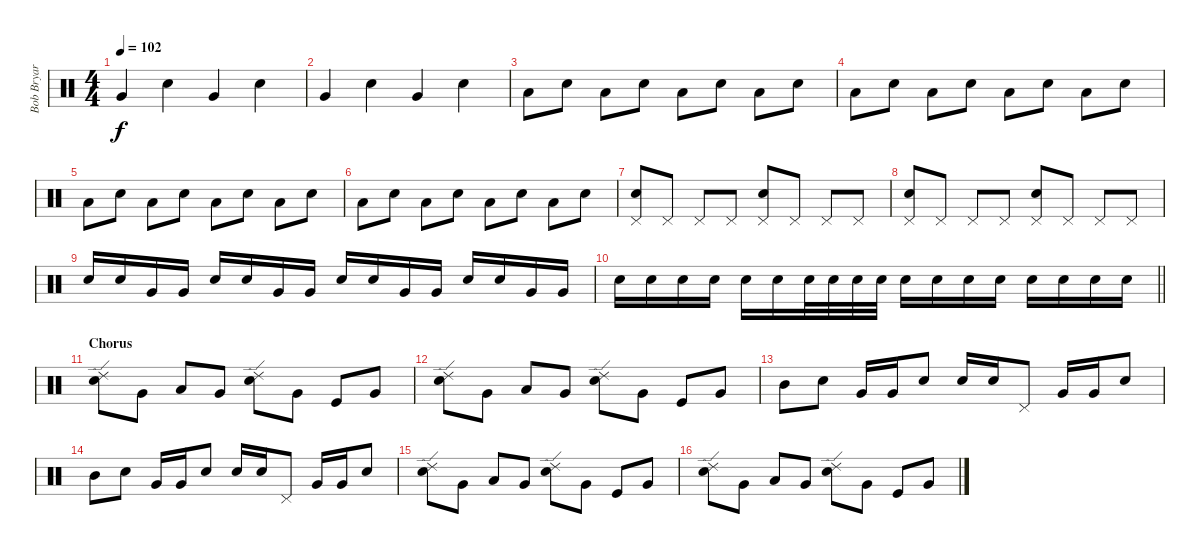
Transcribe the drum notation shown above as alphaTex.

\track ("Bob Bryar" "Bob Bryar") {instrument percussion}
\staff {score}
\articulation defaults
\ts (4 4)
\tempo 102
\clef neutral
\ks c "Very Low Tom (hit)".4{dy f} "Electric Snare (hit)".4 "Very Low Tom (hit)".4 "Electric Snare (hit)".4
|
"Very Low Tom (hit)".4 "Electric Snare (hit)".4 "Very Low Tom (hit)".4 "Electric Snare (hit)".4 |
"Low Floor Tom (hit)".8 "Electric Snare (hit)".8 "Low Floor Tom (hit)".8 "Electric Snare (hit)".8 "Low Floor Tom (hit)".8 "Electric Snare (hit)".8 "Low Floor Tom (hit)".8 "Electric Snare (hit)".8 |
"Low Floor Tom (hit)".8 "Electric Snare (hit)".8 "Low Floor Tom (hit)".8 "Electric Snare (hit)".8 "Low Floor Tom (hit)".8 "Electric Snare (hit)".8 "Low Floor Tom (hit)".8 "Electric Snare (hit)".8 |
"Low Floor Tom (hit)".8 "Electric Snare (hit)".8 "Low Floor Tom (hit)".8 "Electric Snare (hit)".8 "Low Floor Tom (hit)".8 "Electric Snare (hit)".8 "Low Floor Tom (hit)".8 "Electric Snare (hit)".8 |
"Low Floor Tom (hit)".8 "Electric Snare (hit)".8 "Low Floor Tom (hit)".8 "Electric Snare (hit)".8 "Low Floor Tom (hit)".8 "Electric Snare (hit)".8 "Low Floor Tom (hit)".8 "Electric Snare (hit)".8 |
("Pedal Hi-Hat (hit)" "Electric Snare (hit)").8 "Pedal Hi-Hat (hit)".8 "Pedal Hi-Hat (hit)".8 "Pedal Hi-Hat (hit)".8 ("Pedal Hi-Hat (hit)" "Electric Snare (hit)").8 "Pedal Hi-Hat (hit)".8 "Pedal Hi-Hat (hit)".8 "Pedal Hi-Hat (hit)".8 |
("Pedal Hi-Hat (hit)" "Electric Snare (hit)").8 "Pedal Hi-Hat (hit)".8 "Pedal Hi-Hat (hit)".8 "Pedal Hi-Hat (hit)".8 ("Pedal Hi-Hat (hit)" "Electric Snare (hit)").8 "Pedal Hi-Hat (hit)".8 "Pedal Hi-Hat (hit)".8 "Pedal Hi-Hat (hit)".8 |
"Electric Snare (hit)".16 "Electric Snare (hit)".16 "Very Low Tom (hit)".16 "Very Low Tom (hit)".16 "Electric Snare (hit)".16 "Electric Snare (hit)".16 "Very Low Tom (hit)".16 "Very Low Tom (hit)".16 "Electric Snare (hit)".16 "Electric Snare (hit)".16 "Very Low Tom (hit)".16 "Very Low Tom (hit)".16 "Electric Snare (hit)".16 "Electric Snare (hit)".16 "Very Low Tom (hit)".16 "Very Low Tom (hit)".16 |
\barLineRight lightlight "Electric Snare (hit)".16 "Electric Snare (hit)".16 "Electric Snare (hit)".16 "Electric Snare (hit)".16 "Electric Snare (hit)".16 "Electric Snare (hit)".16 "Electric Snare (hit)".32 "Electric Snare (hit)".32 "Electric Snare (hit)".32 "Electric Snare (hit)".32 "Electric Snare (hit)".16 "Electric Snare (hit)".16 "Electric Snare (hit)".16 "Electric Snare (hit)".16 "Electric Snare (hit)".16 "Electric Snare (hit)".16 "Electric Snare (hit)".16 "Electric Snare (hit)".16
|
\section ("" "Chorus")
("Ride (edge) 2" "Electric Snare (hit)").8 "Very Low Tom (hit)".8 "Low Tom (hit)".8 "Very Low Tom (hit)".8 ("Ride (edge) 2" "Electric Snare (hit)").8 "Very Low Tom (hit)".8 "Kick (hit)".8 "Very Low Tom (hit)".8 |
("Ride (edge) 2" "Electric Snare (hit)").8 "Very Low Tom (hit)".8 "Low Tom (hit)".8 "Very Low Tom (hit)".8 ("Ride (edge) 2" "Electric Snare (hit)").8 "Very Low Tom (hit)".8 "Kick (hit)".8 "Very Low Tom (hit)".8 |
"Mid Tom (hit)".8 "Electric Snare (hit)".8 "Very Low Tom (hit)".16 "Very Low Tom (hit)".16 "Electric Snare (hit)".8 "Electric Snare (hit)".16 "Electric Snare (hit)".16 "Pedal Hi-Hat (hit)".8 "Very Low Tom (hit)".16 "Very Low Tom (hit)".16 "Electric Snare (hit)".8 |
"Mid Tom (hit)".8 "Electric Snare (hit)".8 "Very Low Tom (hit)".16 "Very Low Tom (hit)".16 "Electric Snare (hit)".8 "Electric Snare (hit)".16 "Electric Snare (hit)".16 "Pedal Hi-Hat (hit)".8 "Very Low Tom (hit)".16 "Very Low Tom (hit)".16 "Electric Snare (hit)".8 |
("Ride (edge) 2" "Electric Snare (hit)").8 "Very Low Tom (hit)".8 "Low Tom (hit)".8 "Very Low Tom (hit)".8 ("Ride (edge) 2" "Electric Snare (hit)").8 "Very Low Tom (hit)".8 "Kick (hit)".8 "Very Low Tom (hit)".8 |
("Ride (edge) 2" "Electric Snare (hit)").8 "Very Low Tom (hit)".8 "Low Tom (hit)".8 "Very Low Tom (hit)".8 ("Ride (edge) 2" "Electric Snare (hit)").8 "Very Low Tom (hit)".8 "Kick (hit)".8 "Very Low Tom (hit)".8
